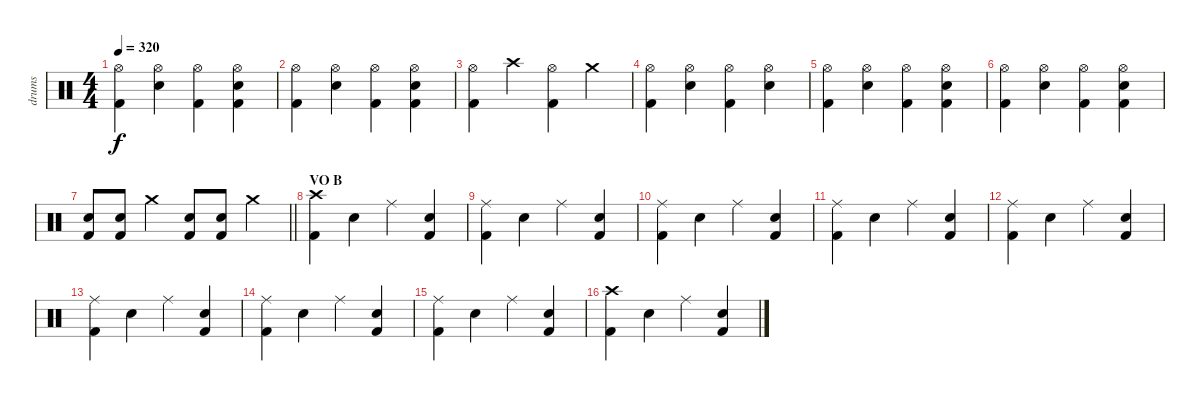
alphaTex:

\track ("drums" "drums") {instrument percussion}
\staff {score}
\articulation defaults
\ts (4 4)
\tempo 320
\clef neutral
\ks c
("Hi-Hat (open)" "Kick (hit) 2").4{dy f} ("Hi-Hat (open)" "Snare (hit) 2").4 ("Hi-Hat (open)" "Kick (hit) 2").4 ("Hi-Hat (open)" "Snare (hit) 2" "Kick (hit) 2").4 |
("Hi-Hat (open)" "Kick (hit) 2").4 ("Hi-Hat (open)" "Snare (hit) 2").4 ("Hi-Hat (open)" "Kick (hit) 2").4 ("Hi-Hat (open)" "Snare (hit) 2" "Kick (hit) 2").4 |
("Hi-Hat (open)" "Kick (hit) 2").4 "Crash high (hit)".4 ("Hi-Hat (open)" "Kick (hit) 2").4 "Crash medium (hit)".4 |
("Hi-Hat (open)" "Kick (hit) 2").4 ("Hi-Hat (open)" "Snare (hit) 2").4 ("Hi-Hat (open)" "Kick (hit) 2").4 ("Hi-Hat (open)" "Snare (hit) 2").4 |
("Hi-Hat (open)" "Kick (hit) 2").4 ("Hi-Hat (open)" "Snare (hit) 2").4 ("Hi-Hat (open)" "Kick (hit) 2").4 ("Hi-Hat (open)" "Snare (hit) 2" "Kick (hit) 2").4 |
("Hi-Hat (open)" "Kick (hit) 2").4 ("Hi-Hat (open)" "Snare (hit) 2").4 ("Hi-Hat (open)" "Kick (hit) 2").4 ("Hi-Hat (open)" "Snare (hit) 2" "Kick (hit) 2").4 |
\barLineRight lightlight
("Snare (hit) 2" "Kick (hit) 2").8 ("Snare (hit) 2" "Kick (hit) 2").8 "Crash medium (hit)".4 ("Snare (hit) 2" "Kick (hit) 2").8 ("Snare (hit) 2" "Kick (hit) 2").8 "Crash medium (hit)".4 |
\section ("" "VO B")
("Crash high (hit)" "Kick (hit) 2").4 "Snare (hit) 2".4 "Ride (middle)".4 ("Snare (hit) 2" "Kick (hit) 2").4 |
("Ride (middle)" "Kick (hit) 2").4 "Snare (hit) 2".4 "Ride (middle)".4 ("Snare (hit) 2" "Kick (hit) 2").4 |
("Ride (middle)" "Kick (hit) 2").4 "Snare (hit) 2".4 "Ride (middle)".4 ("Snare (hit) 2" "Kick (hit) 2").4 |
("Ride (middle)" "Kick (hit) 2").4 "Snare (hit) 2".4 "Ride (middle)".4 ("Snare (hit) 2" "Kick (hit) 2").4 |
("Ride (middle)" "Kick (hit) 2").4 "Snare (hit) 2".4 "Ride (middle)".4 ("Snare (hit) 2" "Kick (hit) 2").4 |
("Ride (middle)" "Kick (hit) 2").4 "Snare (hit) 2".4 "Ride (middle)".4 ("Snare (hit) 2" "Kick (hit) 2").4 |
("Ride (middle)" "Kick (hit) 2").4 "Snare (hit) 2".4 "Ride (middle)".4 ("Snare (hit) 2" "Kick (hit) 2").4 |
("Ride (middle)" "Kick (hit) 2").4 "Snare (hit) 2".4 "Ride (middle)".4 ("Snare (hit) 2" "Kick (hit) 2").4 |
("Crash high (hit)" "Kick (hit) 2").4 "Snare (hit) 2".4 "Ride (middle)".4 ("Snare (hit) 2" "Kick (hit) 2").4
